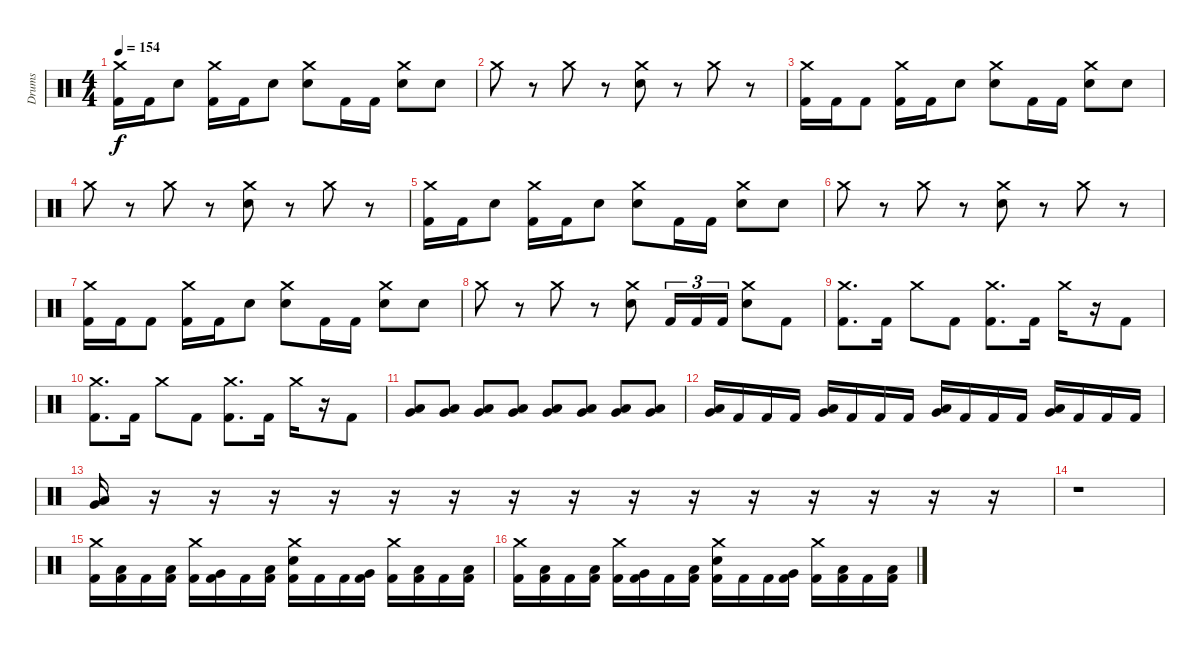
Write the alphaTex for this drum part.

\track ("Drums" "Drums") {instrument percussion}
\staff {score}
\articulation defaults
\ts (4 4)
\tempo 154
\clef neutral
\ks c
("Crash medium (hit)" "Kick (hit) 2").16{dy f} "Kick (hit) 2".16 "Electric Snare (hit)".8 ("Crash medium (hit)" "Kick (hit) 2").16 "Kick (hit) 2".16 "Electric Snare (hit)".8 ("Crash medium (hit)" "Electric Snare (hit)").8 "Kick (hit) 2".16 "Kick (hit) 2".16 ("Crash medium (hit)" "Electric Snare (hit)").8 "Electric Snare (hit)".8 |
"Crash medium (hit)".8 r.8 "Crash medium (hit)".8 r.8 ("Crash medium (hit)" "Electric Snare (hit)").8 r.8 "Crash medium (hit)".8 r.8 |
("Crash medium (hit)" "Kick (hit) 2").16 "Kick (hit) 2".16 "Kick (hit) 2".8 ("Crash medium (hit)" "Kick (hit) 2").16 "Kick (hit) 2".16 "Electric Snare (hit)".8 ("Crash medium (hit)" "Electric Snare (hit)").8 "Kick (hit) 2".16 "Kick (hit) 2".16 ("Crash medium (hit)" "Electric Snare (hit)").8 "Electric Snare (hit)".8 |
"Crash medium (hit)".8 r.8 "Crash medium (hit)".8 r.8 ("Crash medium (hit)" "Electric Snare (hit)").8 r.8 "Crash medium (hit)".8 r.8 |
("Crash medium (hit)" "Kick (hit) 2").16 "Kick (hit) 2".16 "Electric Snare (hit)".8 ("Crash medium (hit)" "Kick (hit) 2").16 "Kick (hit) 2".16 "Electric Snare (hit)".8 ("Crash medium (hit)" "Electric Snare (hit)").8 "Kick (hit) 2".16 "Kick (hit) 2".16 ("Crash medium (hit)" "Electric Snare (hit)").8 "Electric Snare (hit)".8 |
"Crash medium (hit)".8 r.8 "Crash medium (hit)".8 r.8 ("Crash medium (hit)" "Electric Snare (hit)").8 r.8 "Crash medium (hit)".8 r.8 |
("Crash medium (hit)" "Kick (hit) 2").16 "Kick (hit) 2".16 "Kick (hit) 2".8 ("Crash medium (hit)" "Kick (hit) 2").16 "Kick (hit) 2".16 "Electric Snare (hit)".8 ("Crash medium (hit)" "Electric Snare (hit)").8 "Kick (hit) 2".16 "Kick (hit) 2".16 ("Crash medium (hit)" "Electric Snare (hit)").8 "Electric Snare (hit)".8 |
"Crash medium (hit)".8 r.8 "Crash medium (hit)".8 r.8 ("Crash medium (hit)" "Electric Snare (hit)").8 "Kick (hit) 2".16{tu (3 2)} "Kick (hit) 2".16{tu (3 2)} "Kick (hit) 2".16{tu (3 2)} ("Crash medium (hit)" "Electric Snare (hit)").8 "Kick (hit) 2".8 |
("Crash medium (hit)" "Kick (hit) 2").8{d} "Kick (hit) 2".16 "Crash medium (hit)".8 "Kick (hit) 2".8 ("Crash medium (hit)" "Kick (hit) 2").8{d} "Kick (hit) 2".16 "Crash medium (hit)".16 r.16 "Kick (hit) 2".8 |
("Crash medium (hit)" "Kick (hit) 2").8{d} "Kick (hit) 2".16 "Crash medium (hit)".8 "Kick (hit) 2".8 ("Crash medium (hit)" "Kick (hit) 2").8{d} "Kick (hit) 2".16 "Crash medium (hit)".16 r.16 "Kick (hit) 2".8 |
("Very Low Tom (hit)" "Low Floor Tom (hit)").8 ("Very Low Tom (hit)" "Low Floor Tom (hit)").8 ("Very Low Tom (hit)" "Low Floor Tom (hit)").8 ("Very Low Tom (hit)" "Low Floor Tom (hit)").8 ("Very Low Tom (hit)" "Low Floor Tom (hit)").8 ("Very Low Tom (hit)" "Low Floor Tom (hit)").8 ("Very Low Tom (hit)" "Low Floor Tom (hit)").8 ("Very Low Tom (hit)" "Low Floor Tom (hit)").8 |
("Low Floor Tom (hit)" "Very Low Tom (hit)").16 "Kick (hit) 2".16 "Kick (hit) 2".16 "Kick (hit) 2".16 ("Low Floor Tom (hit)" "Very Low Tom (hit)").16 "Kick (hit) 2".16 "Kick (hit) 2".16 "Kick (hit) 2".16 ("Low Floor Tom (hit)" "Very Low Tom (hit)").16 "Kick (hit) 2".16 "Kick (hit) 2".16 "Kick (hit) 2".16 ("Low Floor Tom (hit)" "Very Low Tom (hit)").16 "Kick (hit) 2".16 "Kick (hit) 2".16 "Kick (hit) 2".16 |
("Low Floor Tom (hit)" "Very Low Tom (hit)").16 r.16 r.16 r.16 r.16 r.16 r.16 r.16 r.16 r.16 r.16 r.16 r.16 r.16 r.16 r.16 |
r.1 |
("Crash medium (hit)" "Kick (hit) 2").16 ("Low Tom (hit)" "Kick (hit) 2").16 "Kick (hit) 2".16 ("Low Tom (hit)" "Kick (hit) 2").16 ("Crash medium (hit)" "Kick (hit) 2").16 ("Very Low Tom (hit)" "Kick (hit) 2").16 "Kick (hit) 2".16 ("Low Tom (hit)" "Kick (hit) 2").16 ("Crash medium (hit)" "Electric Snare (hit)" "Kick (hit) 2").16 "Kick (hit) 2".16 "Kick (hit) 2".16 ("Very Low Tom (hit)" "Kick (hit) 2").16 ("Crash medium (hit)" "Kick (hit) 2").16 ("Low Floor Tom (hit)" "Kick (hit) 2").16 "Kick (hit) 2".16 ("Low Tom (hit)" "Kick (hit) 2").16 |
("Crash medium (hit)" "Kick (hit) 2").16 ("Low Tom (hit)" "Kick (hit) 2").16 "Kick (hit) 2".16 ("Low Tom (hit)" "Kick (hit) 2").16 ("Crash medium (hit)" "Kick (hit) 2").16 ("Very Low Tom (hit)" "Kick (hit) 2").16 "Kick (hit) 2".16 ("Low Tom (hit)" "Kick (hit) 2").16 ("Crash medium (hit)" "Electric Snare (hit)" "Kick (hit) 2").16 "Kick (hit) 2".16 "Kick (hit) 2".16 ("Very Low Tom (hit)" "Kick (hit) 2").16 ("Crash medium (hit)" "Kick (hit) 2").16 ("Low Floor Tom (hit)" "Kick (hit) 2").16 "Kick (hit) 2".16 ("Low Tom (hit)" "Kick (hit) 2").16
